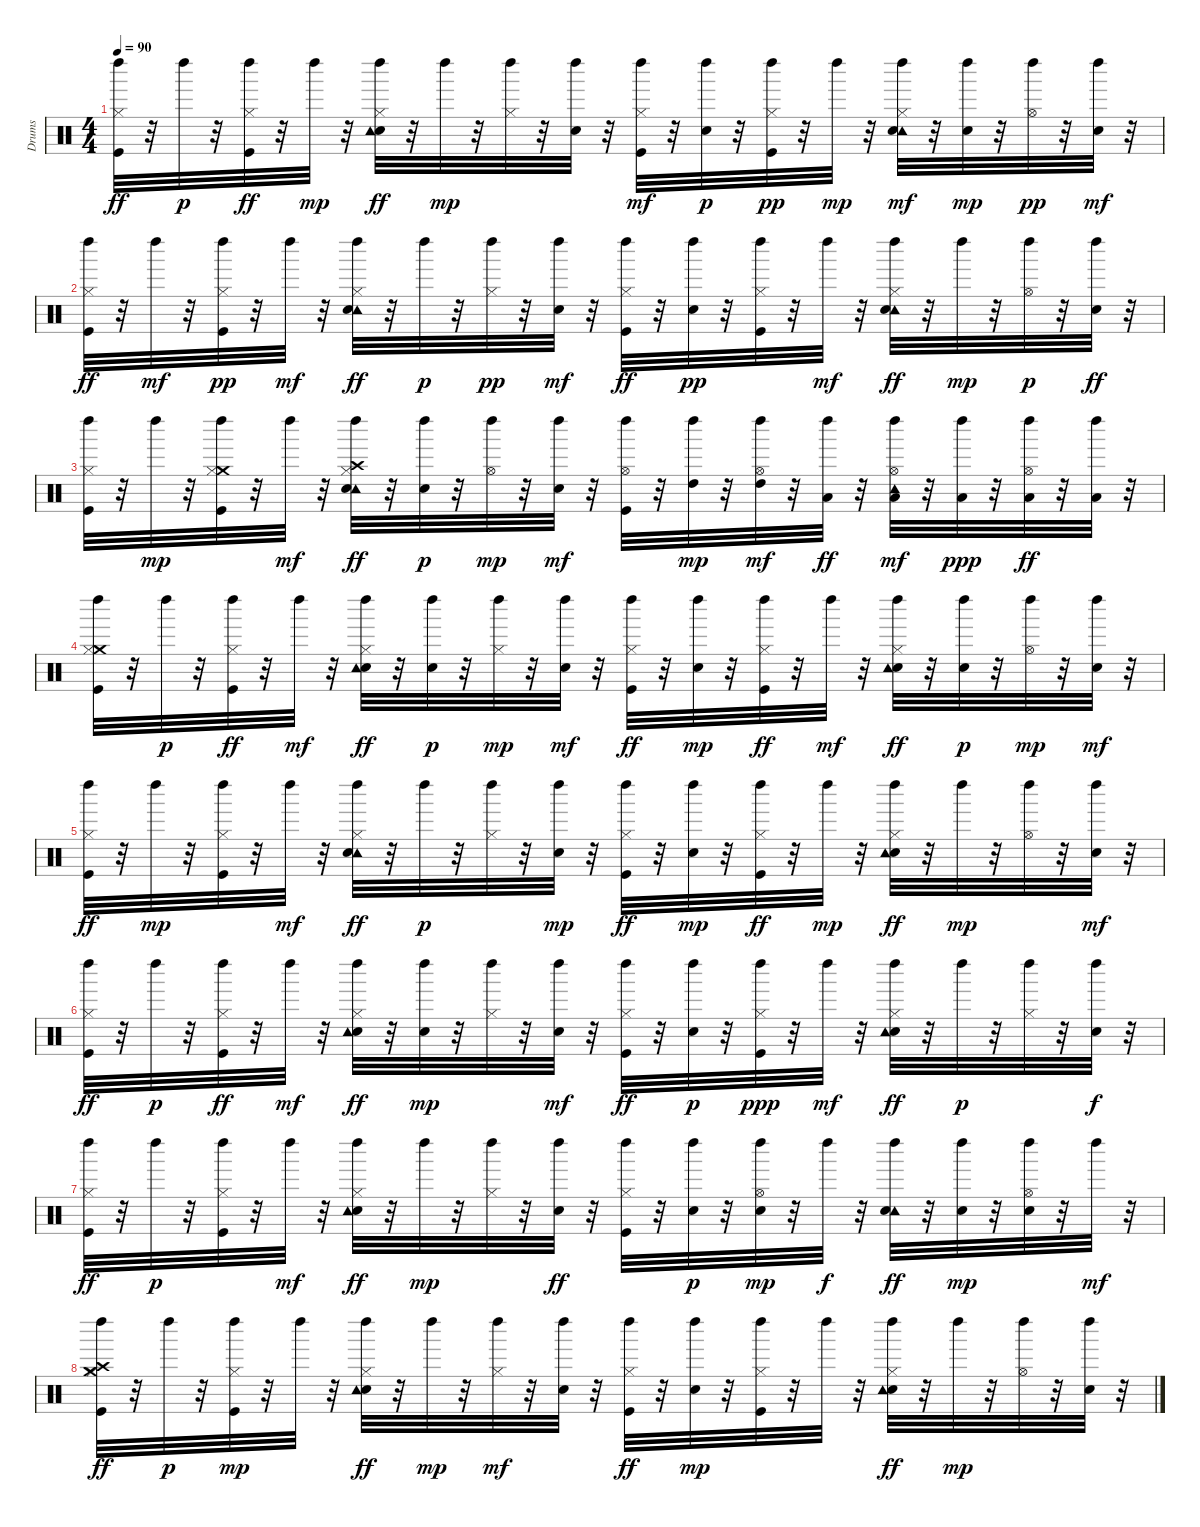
\track ("Drums" "Drums") {instrument percussion}
\staff {score}
\articulation defaults
\ts (4 4)
\tempo 90
\clef neutral
\ks c
("Left Maraca (hit)" "Hi-Hat (closed)" "Kick (hit)").32{dy ff} r.32 "Left Maraca (hit)".32{dy p} r.32 ("Hi-Hat (closed)" "Left Maraca (hit)" "Kick (hit)").32{dy ff} r.32 "Left Maraca (hit)".32{dy mp} r.32 ("Hi-Hat (closed)" "Electric Snare (hit)" "Tambourine (hit)" "Left Maraca (hit)").32{dy ff} r.32 "Left Maraca (hit)".32{dy mp} r.32 ("Hi-Hat (closed)" "Left Maraca (hit)").32 r.32 ("Left Maraca (hit)" "Electric Snare (hit)").32 r.32 ("Kick (hit)" "Left Maraca (hit)" "Hi-Hat (closed)").32{dy mf} r.32 ("Left Maraca (hit)" "Electric Snare (hit)").32{dy p} r.32 ("Hi-Hat (closed)" "Kick (hit)" "Left Maraca (hit)").32{dy pp} r.32 "Left Maraca (hit)".32{dy mp} r.32 ("Tambourine (hit)" "Electric Snare (hit)" "Hi-Hat (closed)" "Left Maraca (hit)").32{dy mf} r.32 ("Electric Snare (hit)" "Left Maraca (hit)").32{dy mp} r.32 ("Hi-Hat (open)" "Left Maraca (hit)").32{dy pp} r.32 ("Electric Snare (hit)" "Left Maraca (hit)").32{dy mf} r.32 |
("Hi-Hat (closed)" "Kick (hit)" "Left Maraca (hit)").32{dy ff} r.32 "Left Maraca (hit)".32{dy mf} r.32 ("Hi-Hat (closed)" "Kick (hit)" "Left Maraca (hit)").32{dy pp} r.32 "Left Maraca (hit)".32{dy mf} r.32 ("Tambourine (hit)" "Hi-Hat (closed)" "Electric Snare (hit)" "Left Maraca (hit)").32{dy ff} r.32 "Left Maraca (hit)".32{dy p} r.32 ("Hi-Hat (closed)" "Left Maraca (hit)").32{dy pp} r.32 ("Electric Snare (hit)" "Left Maraca (hit)").32{dy mf} r.32 ("Kick (hit)" "Hi-Hat (closed)" "Left Maraca (hit)").32{dy ff} r.32 ("Electric Snare (hit)" "Left Maraca (hit)").32{dy pp} r.32 ("Hi-Hat (closed)" "Kick (hit)" "Left Maraca (hit)").32 r.32 "Left Maraca (hit)".32{dy mf} r.32 ("Tambourine (hit)" "Hi-Hat (closed)" "Left Maraca (hit)" "Electric Snare (hit)").32{dy ff} r.32 "Left Maraca (hit)".32{dy mp} r.32 ("Hi-Hat (open)" "Left Maraca (hit)").32{dy p} r.32 ("Electric Snare (hit)" "Left Maraca (hit)").32{dy ff} r.32 |
("Hi-Hat (closed)" "Kick (hit)" "Left Maraca (hit)").32 r.32 "Left Maraca (hit)".32{dy mp} r.32 ("Crash medium (hit)" "Hi-Hat (closed)" "Kick (hit)" "Left Maraca (hit)").32 r.32 "Left Maraca (hit)".32{dy mf} r.32 ("Crash high (hit)" "Tambourine (hit)" "Hi-Hat (closed)" "Electric Snare (hit)" "Left Maraca (hit)").32{dy ff} r.32 ("Electric Snare (hit)" "Left Maraca (hit)").32{dy p} r.32 ("Hi-Hat (open)" "Left Maraca (hit)").32{dy mp} r.32 ("Electric Snare (hit)" "Left Maraca (hit)").32{dy mf} r.32 ("Hi-Hat (open)" "Kick (hit)" "Left Maraca (hit)").32 r.32 ("High Tom (hit)" "Left Maraca (hit)").32{dy mp} r.32 ("High Tom (hit)" "Hi-Hat (open)" "Left Maraca (hit)").32{dy mf} r.32 ("Left Maraca (hit)" "Low Tom (hit)").32{dy ff} r.32 ("Tambourine (hit)" "Left Maraca (hit)" "Low Tom (hit)" "Hi-Hat (open)").32{dy mf} r.32 ("Low Tom (hit)" "Left Maraca (hit)").32{dy ppp} r.32 ("Hi-Hat (open)" "Left Maraca (hit)" "Low Floor Tom (hit)").32{dy ff} r.32 ("Left Maraca (hit)" "Low Floor Tom (hit)").32 r.32 |
("Left Maraca (hit)" "Kick (hit)" "Crash medium (hit)" "Hi-Hat (closed)").32 r.32 "Left Maraca (hit)".32{dy p} r.32 ("Left Maraca (hit)" "Hi-Hat (closed)" "Kick (hit)").32{dy ff} r.32 "Left Maraca (hit)".32{dy mf} r.32 ("Hi-Hat (closed)" "Electric Snare (hit)" "Tambourine (hit)" "Left Maraca (hit)").32{dy ff} r.32 ("Electric Snare (hit)" "Left Maraca (hit)").32{dy p} r.32 ("Hi-Hat (closed)" "Left Maraca (hit)").32{dy mp} r.32 ("Electric Snare (hit)" "Left Maraca (hit)").32{dy mf} r.32 ("Hi-Hat (closed)" "Kick (hit)" "Left Maraca (hit)").32{dy ff} r.32 ("Electric Snare (hit)" "Left Maraca (hit)").32{dy mp} r.32 ("Hi-Hat (closed)" "Left Maraca (hit)" "Kick (hit)").32{dy ff} r.32 "Left Maraca (hit)".32{dy mf} r.32 ("Hi-Hat (closed)" "Electric Snare (hit)" "Left Maraca (hit)" "Tambourine (hit)").32{dy ff} r.32 ("Electric Snare (hit)" "Left Maraca (hit)").32{dy p} r.32 ("Hi-Hat (open)" "Left Maraca (hit)").32{dy mp} r.32 ("Electric Snare (hit)" "Left Maraca (hit)").32{dy mf} r.32 |
("Hi-Hat (closed)" "Kick (hit)" "Left Maraca (hit)").32{dy ff} r.32 "Left Maraca (hit)".32{dy mp} r.32 ("Hi-Hat (closed)" "Kick (hit)" "Left Maraca (hit)").32 r.32 "Left Maraca (hit)".32{dy mf} r.32 ("Tambourine (hit)" "Hi-Hat (closed)" "Electric Snare (hit)" "Left Maraca (hit)").32{dy ff} r.32 "Left Maraca (hit)".32{dy p} r.32 ("Hi-Hat (closed)" "Left Maraca (hit)").32 r.32 ("Electric Snare (hit)" "Left Maraca (hit)").32{dy mp} r.32 ("Kick (hit)" "Left Maraca (hit)" "Hi-Hat (closed)").32{dy ff} r.32 ("Electric Snare (hit)" "Left Maraca (hit)").32{dy mp} r.32 ("Left Maraca (hit)" "Hi-Hat (closed)" "Kick (hit)").32{dy ff} r.32 "Left Maraca (hit)".32{dy mp} r.32 ("Electric Snare (hit)" "Tambourine (hit)" "Left Maraca (hit)" "Hi-Hat (closed)").32{dy ff} r.32 "Left Maraca (hit)".32{dy mp} r.32 ("Hi-Hat (open)" "Left Maraca (hit)").32 r.32 ("Electric Snare (hit)" "Left Maraca (hit)").32{dy mf} r.32 |
("Hi-Hat (closed)" "Kick (hit)" "Left Maraca (hit)").32{dy ff} r.32 "Left Maraca (hit)".32{dy p} r.32 ("Hi-Hat (closed)" "Left Maraca (hit)" "Kick (hit)").32{dy ff} r.32 "Left Maraca (hit)".32{dy mf} r.32 ("Electric Snare (hit)" "Tambourine (hit)" "Left Maraca (hit)" "Hi-Hat (closed)").32{dy ff} r.32 ("Left Maraca (hit)" "Electric Snare (hit)").32{dy mp} r.32 ("Left Maraca (hit)" "Hi-Hat (closed)").32 r.32 ("Electric Snare (hit)" "Left Maraca (hit)").32{dy mf} r.32 ("Kick (hit)" "Left Maraca (hit)" "Hi-Hat (closed)").32{dy ff} r.32 ("Electric Snare (hit)" "Left Maraca (hit)").32{dy p} r.32 ("Hi-Hat (closed)" "Kick (hit)" "Left Maraca (hit)").32{dy ppp} r.32 "Left Maraca (hit)".32{dy mf} r.32 ("Electric Snare (hit)" "Tambourine (hit)" "Left Maraca (hit)" "Hi-Hat (closed)").32{dy ff} r.32 "Left Maraca (hit)".32{dy p} r.32 ("Left Maraca (hit)" "Hi-Hat (closed)").32 r.32 ("Electric Snare (hit)" "Left Maraca (hit)").32{dy f} r.32 |
("Kick (hit)" "Left Maraca (hit)" "Hi-Hat (closed)").32{dy ff} r.32 "Left Maraca (hit)".32{dy p} r.32 ("Hi-Hat (closed)" "Kick (hit)" "Left Maraca (hit)").32 r.32 "Left Maraca (hit)".32{dy mf} r.32 ("Electric Snare (hit)" "Tambourine (hit)" "Hi-Hat (closed)" "Left Maraca (hit)").32{dy ff} r.32 "Left Maraca (hit)".32{dy mp} r.32 ("Hi-Hat (closed)" "Left Maraca (hit)").32 r.32 ("Left Maraca (hit)" "Electric Snare (hit)").32{dy ff} r.32 ("Kick (hit)" "Hi-Hat (closed)" "Left Maraca (hit)").32 r.32 ("Electric Snare (hit)" "Left Maraca (hit)").32{dy p} r.32 ("Hi-Hat (open)" "Electric Snare (hit)" "Left Maraca (hit)").32{dy mp} r.32 "Left Maraca (hit)".32{dy f} r.32 ("Tambourine (hit)" "Left Maraca (hit)" "Electric Snare (hit)").32{dy ff} r.32 ("Electric Snare (hit)" "Left Maraca (hit)").32{dy mp} r.32 ("Hi-Hat (open)" "Electric Snare (hit)" "Left Maraca (hit)").32 r.32 "Left Maraca (hit)".32{dy mf} r.32 |
("Hi-Hat (closed)" "Crash medium (hit)" "Crash high (hit)" "Kick (hit)" "Left Maraca (hit)").32{dy ff} r.32 "Left Maraca (hit)".32{dy p} r.32 ("Hi-Hat (closed)" "Kick (hit)" "Left Maraca (hit)").32{dy mp} r.32 "Left Maraca (hit)".32 r.32 ("Hi-Hat (closed)" "Electric Snare (hit)" "Tambourine (hit)" "Left Maraca (hit)").32{dy ff} r.32 "Left Maraca (hit)".32{dy mp} r.32 ("Hi-Hat (closed)" "Left Maraca (hit)").32{dy mf} r.32 ("Electric Snare (hit)" "Left Maraca (hit)").32 r.32 ("Kick (hit)" "Hi-Hat (closed)" "Left Maraca (hit)").32{dy ff} r.32 ("Electric Snare (hit)" "Left Maraca (hit)").32{dy mp} r.32 ("Hi-Hat (closed)" "Kick (hit)" "Left Maraca (hit)").32 r.32 "Left Maraca (hit)".32 r.32 ("Electric Snare (hit)" "Left Maraca (hit)" "Hi-Hat (closed)" "Tambourine (hit)").32{dy ff} r.32 "Left Maraca (hit)".32{dy mp} r.32 ("Hi-Hat (open)" "Left Maraca (hit)").32 r.32 ("Electric Snare (hit)" "Left Maraca (hit)").32 r.32
